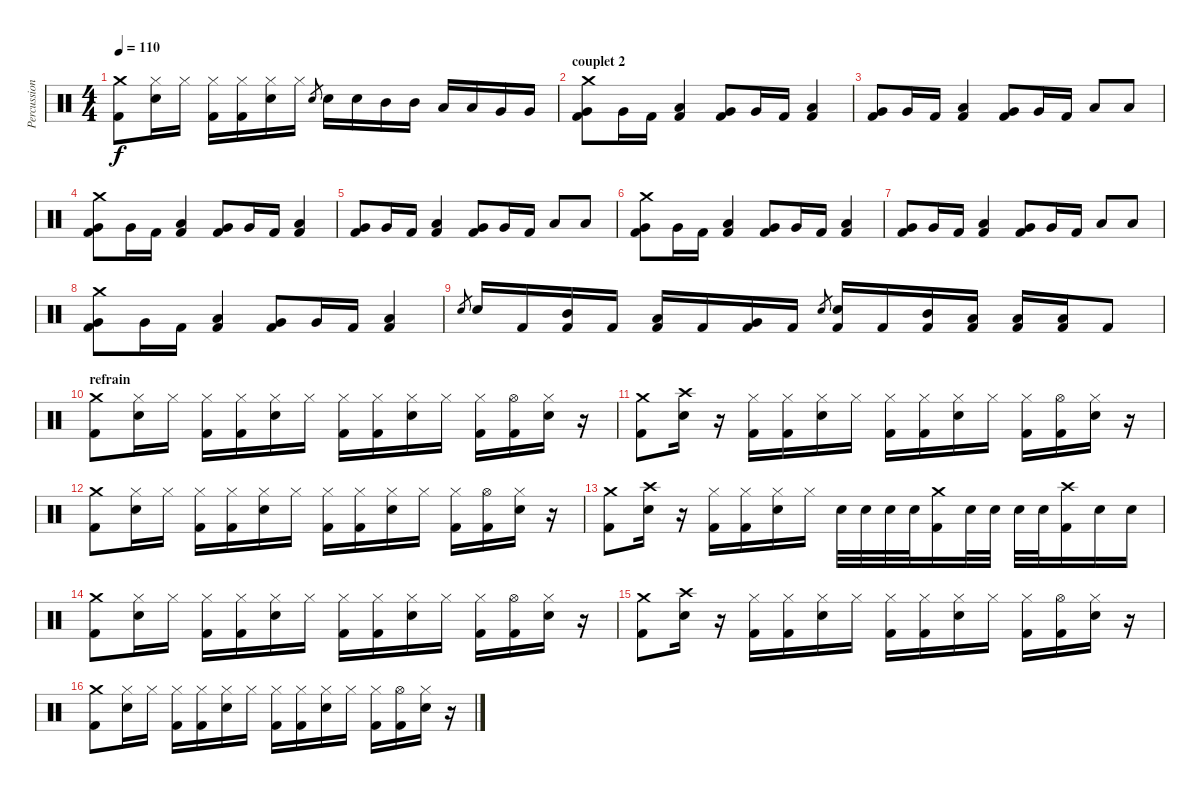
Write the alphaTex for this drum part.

\track ("Percussions" "Percussion") {instrument percussion}
\staff {score}
\articulation defaults
\ts (4 4)
\tempo 110
\clef neutral
\ks c
("Crash medium (hit)" "Kick (hit) 2").8{dy f} ("Hi-Hat (closed)" "Electric Snare (hit)").16 "Hi-Hat (closed)".16 ("Hi-Hat (closed)" "Kick (hit) 2").16 ("Hi-Hat (closed)" "Kick (hit) 2").16 ("Hi-Hat (closed)" "Electric Snare (hit)").16 "Hi-Hat (closed)".16 "Electric Snare (hit)".8{gr} "Electric Snare (hit)".16 "Electric Snare (hit)".16 "Mid Tom (hit)".16 "Mid Tom (hit)".16 "Low Tom (hit)".16 "Low Tom (hit)".16 "Very Low Tom (hit)".16 "Very Low Tom (hit)".16 |
\section ("" "couplet 2")
("Crash medium (hit)" "Very Low Tom (hit)" "Kick (hit) 2").8 "Very Low Tom (hit)".16 "Kick (hit) 2".16 ("Low Tom (hit)" "Kick (hit) 2").4 ("Very Low Tom (hit)" "Kick (hit) 2").8 "Very Low Tom (hit)".16 "Kick (hit) 2".16 ("Low Tom (hit)" "Kick (hit) 2").4 |
("Very Low Tom (hit)" "Kick (hit) 2").8 "Very Low Tom (hit)".16 "Kick (hit) 2".16 ("Low Tom (hit)" "Kick (hit) 2").4 ("Very Low Tom (hit)" "Kick (hit) 2").8 "Very Low Tom (hit)".16 "Kick (hit) 2".16 "Low Tom (hit)".8 "Low Tom (hit)".8 |
("Crash medium (hit)" "Very Low Tom (hit)" "Kick (hit) 2").8 "Very Low Tom (hit)".16 "Kick (hit) 2".16 ("Low Tom (hit)" "Kick (hit) 2").4 ("Very Low Tom (hit)" "Kick (hit) 2").8 "Very Low Tom (hit)".16 "Kick (hit) 2".16 ("Low Tom (hit)" "Kick (hit) 2").4 |
("Very Low Tom (hit)" "Kick (hit) 2").8 "Very Low Tom (hit)".16 "Kick (hit) 2".16 ("Low Tom (hit)" "Kick (hit) 2").4 ("Very Low Tom (hit)" "Kick (hit) 2").8 "Very Low Tom (hit)".16 "Kick (hit) 2".16 "Low Tom (hit)".8 "Low Tom (hit)".8 |
("Crash medium (hit)" "Very Low Tom (hit)" "Kick (hit) 2").8 "Very Low Tom (hit)".16 "Kick (hit) 2".16 ("Low Tom (hit)" "Kick (hit) 2").4 ("Very Low Tom (hit)" "Kick (hit) 2").8 "Very Low Tom (hit)".16 "Kick (hit) 2".16 ("Low Tom (hit)" "Kick (hit) 2").4 |
("Very Low Tom (hit)" "Kick (hit) 2").8 "Very Low Tom (hit)".16 "Kick (hit) 2".16 ("Low Tom (hit)" "Kick (hit) 2").4 ("Very Low Tom (hit)" "Kick (hit) 2").8 "Very Low Tom (hit)".16 "Kick (hit) 2".16 "Low Tom (hit)".8 "Low Tom (hit)".8 |
("Crash medium (hit)" "Very Low Tom (hit)" "Kick (hit) 2").8 "Very Low Tom (hit)".16 "Kick (hit) 2".16 ("Low Tom (hit)" "Kick (hit) 2").4 ("Very Low Tom (hit)" "Kick (hit) 2").8 "Very Low Tom (hit)".16 "Kick (hit) 2".16 ("Low Tom (hit)" "Kick (hit) 2").4 |
"Electric Snare (hit)".8{gr} "Electric Snare (hit)".16 "Kick (hit) 2".16 ("Mid Tom (hit)" "Kick (hit) 2").16 "Kick (hit) 2".16 ("Low Tom (hit)" "Kick (hit) 2").16 "Kick (hit) 2".16 ("Very Low Tom (hit)" "Kick (hit) 2").16 "Kick (hit) 2".16 "Electric Snare (hit)".8{gr} ("Electric Snare (hit)" "Kick (hit) 2").16 "Kick (hit) 2".16 ("Mid Tom (hit)" "Kick (hit) 2").16 ("Low Tom (hit)" "Kick (hit) 2").16 ("Low Tom (hit)" "Kick (hit) 2").16 ("Low Tom (hit)" "Kick (hit) 2").16 "Kick (hit) 2".8 |
\section ("" "refrain")
("Crash medium (hit)" "Kick (hit) 2").8 ("Hi-Hat (closed)" "Electric Snare (hit)").16 "Hi-Hat (closed)".16 ("Hi-Hat (closed)" "Kick (hit) 2").16 ("Hi-Hat (closed)" "Kick (hit) 2").16 ("Hi-Hat (closed)" "Electric Snare (hit)").16 "Hi-Hat (closed)".16 ("Hi-Hat (closed)" "Kick (hit) 2").16 ("Hi-Hat (closed)" "Kick (hit) 2").16 ("Hi-Hat (closed)" "Electric Snare (hit)").16 "Hi-Hat (closed)".16 ("Hi-Hat (closed)" "Kick (hit) 2").16 ("Hi-Hat (open)" "Kick (hit) 2").16 ("Hi-Hat (closed)" "Electric Snare (hit)").16 r.16 |
("Crash medium (hit)" "Kick (hit) 2").8 ("Crash high (hit)" "Electric Snare (hit)").16 r.16 ("Hi-Hat (closed)" "Kick (hit) 2").16 ("Hi-Hat (closed)" "Kick (hit) 2").16 ("Hi-Hat (closed)" "Electric Snare (hit)").16 "Hi-Hat (closed)".16 ("Hi-Hat (closed)" "Kick (hit) 2").16 ("Hi-Hat (closed)" "Kick (hit) 2").16 ("Hi-Hat (closed)" "Electric Snare (hit)").16 "Hi-Hat (closed)".16 ("Hi-Hat (closed)" "Kick (hit) 2").16 ("Hi-Hat (open)" "Kick (hit) 2").16 ("Hi-Hat (closed)" "Electric Snare (hit)").16 r.16 |
("Crash medium (hit)" "Kick (hit) 2").8 ("Hi-Hat (closed)" "Electric Snare (hit)").16 "Hi-Hat (closed)".16 ("Hi-Hat (closed)" "Kick (hit) 2").16 ("Hi-Hat (closed)" "Kick (hit) 2").16 ("Hi-Hat (closed)" "Electric Snare (hit)").16 "Hi-Hat (closed)".16 ("Hi-Hat (closed)" "Kick (hit) 2").16 ("Hi-Hat (closed)" "Kick (hit) 2").16 ("Hi-Hat (closed)" "Electric Snare (hit)").16 "Hi-Hat (closed)".16 ("Hi-Hat (closed)" "Kick (hit) 2").16 ("Hi-Hat (open)" "Kick (hit) 2").16 ("Hi-Hat (closed)" "Electric Snare (hit)").16 r.16 |
("Crash medium (hit)" "Kick (hit) 2").8 ("Crash high (hit)" "Electric Snare (hit)").16 r.16 ("Hi-Hat (closed)" "Kick (hit) 2").16 ("Hi-Hat (closed)" "Kick (hit) 2").16 ("Hi-Hat (closed)" "Electric Snare (hit)").16 "Hi-Hat (closed)".16 "Electric Snare (hit)".32 "Electric Snare (hit)".32 "Electric Snare (hit)".32 "Electric Snare (hit)".32 ("Crash medium (hit)" "Kick (hit) 2").16 "Electric Snare (hit)".32 "Electric Snare (hit)".32 "Electric Snare (hit)".32 "Electric Snare (hit)".32 ("Crash high (hit)" "Kick (hit) 2").16 "Electric Snare (hit)".16 "Electric Snare (hit)".16 |
("Crash medium (hit)" "Kick (hit) 2").8 ("Hi-Hat (closed)" "Electric Snare (hit)").16 "Hi-Hat (closed)".16 ("Hi-Hat (closed)" "Kick (hit) 2").16 ("Hi-Hat (closed)" "Kick (hit) 2").16 ("Hi-Hat (closed)" "Electric Snare (hit)").16 "Hi-Hat (closed)".16 ("Hi-Hat (closed)" "Kick (hit) 2").16 ("Hi-Hat (closed)" "Kick (hit) 2").16 ("Hi-Hat (closed)" "Electric Snare (hit)").16 "Hi-Hat (closed)".16 ("Hi-Hat (closed)" "Kick (hit) 2").16 ("Hi-Hat (open)" "Kick (hit) 2").16 ("Hi-Hat (closed)" "Electric Snare (hit)").16 r.16 |
("Crash medium (hit)" "Kick (hit) 2").8 ("Crash high (hit)" "Electric Snare (hit)").16 r.16 ("Hi-Hat (closed)" "Kick (hit) 2").16 ("Hi-Hat (closed)" "Kick (hit) 2").16 ("Hi-Hat (closed)" "Electric Snare (hit)").16 "Hi-Hat (closed)".16 ("Hi-Hat (closed)" "Kick (hit) 2").16 ("Hi-Hat (closed)" "Kick (hit) 2").16 ("Hi-Hat (closed)" "Electric Snare (hit)").16 "Hi-Hat (closed)".16 ("Hi-Hat (closed)" "Kick (hit) 2").16 ("Hi-Hat (open)" "Kick (hit) 2").16 ("Hi-Hat (closed)" "Electric Snare (hit)").16 r.16 |
("Crash medium (hit)" "Kick (hit) 2").8 ("Hi-Hat (closed)" "Electric Snare (hit)").16 "Hi-Hat (closed)".16 ("Hi-Hat (closed)" "Kick (hit) 2").16 ("Hi-Hat (closed)" "Kick (hit) 2").16 ("Hi-Hat (closed)" "Electric Snare (hit)").16 "Hi-Hat (closed)".16 ("Hi-Hat (closed)" "Kick (hit) 2").16 ("Hi-Hat (closed)" "Kick (hit) 2").16 ("Hi-Hat (closed)" "Electric Snare (hit)").16 "Hi-Hat (closed)".16 ("Hi-Hat (closed)" "Kick (hit) 2").16 ("Hi-Hat (open)" "Kick (hit) 2").16 ("Hi-Hat (closed)" "Electric Snare (hit)").16 r.16
